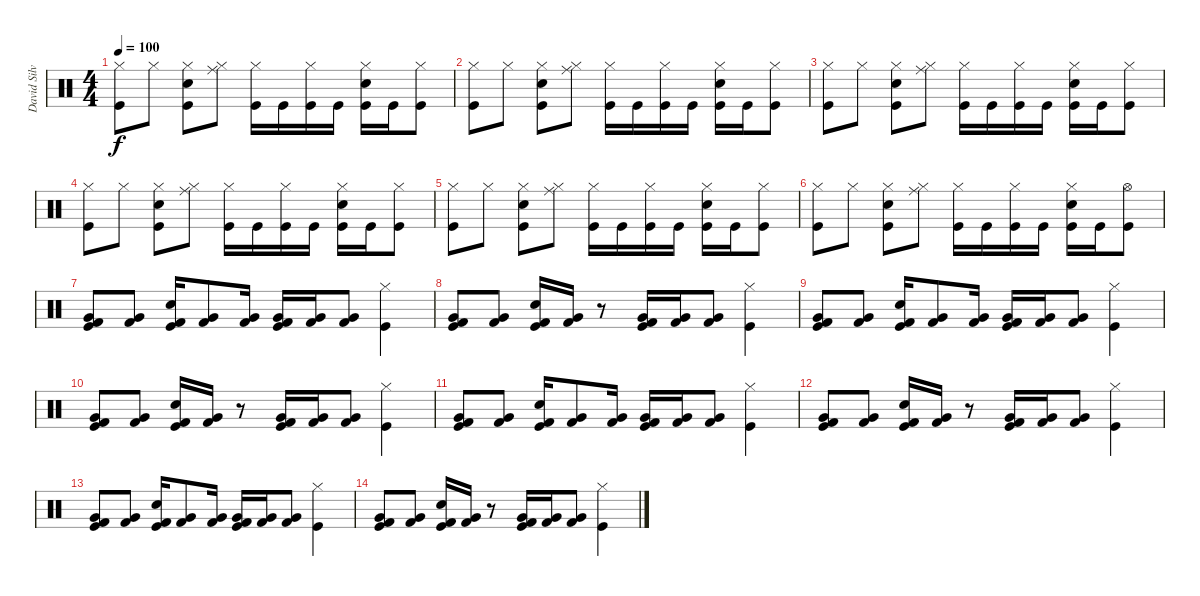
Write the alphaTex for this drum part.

\track ("David Silviera" "David Silv") {instrument percussion}
\staff {score}
\articulation defaults
\ts (4 4)
\tempo 100
\clef neutral
\ks c
("Hi-Hat (closed)" "Kick (hit)").8{dy f} "Hi-Hat (closed)".8 ("Electric Snare (hit)" "Hi-Hat (closed)" "Kick (hit)").8 ("Ride (middle)" "Hi-Hat (closed)").8 ("Hi-Hat (closed)" "Kick (hit)").16 "Kick (hit)".16 ("Hi-Hat (closed)" "Kick (hit)").16 "Kick (hit)".16 ("Electric Snare (hit)" "Hi-Hat (closed)" "Kick (hit)").16 "Kick (hit)".16 ("Hi-Hat (closed)" "Kick (hit)").8 |
("Hi-Hat (closed)" "Kick (hit)").8 "Hi-Hat (closed)".8 ("Electric Snare (hit)" "Hi-Hat (closed)" "Kick (hit)").8 ("Ride (middle)" "Hi-Hat (closed)").8 ("Hi-Hat (closed)" "Kick (hit)").16 "Kick (hit)".16 ("Hi-Hat (closed)" "Kick (hit)").16 "Kick (hit)".16 ("Electric Snare (hit)" "Hi-Hat (closed)" "Kick (hit)").16 "Kick (hit)".16 ("Hi-Hat (closed)" "Kick (hit)").8 |
("Hi-Hat (closed)" "Kick (hit)").8 "Hi-Hat (closed)".8 ("Electric Snare (hit)" "Hi-Hat (closed)" "Kick (hit)").8 ("Ride (middle)" "Hi-Hat (closed)").8 ("Hi-Hat (closed)" "Kick (hit)").16 "Kick (hit)".16 ("Hi-Hat (closed)" "Kick (hit)").16 "Kick (hit)".16 ("Electric Snare (hit)" "Hi-Hat (closed)" "Kick (hit)").16 "Kick (hit)".16 ("Hi-Hat (closed)" "Kick (hit)").8 |
("Hi-Hat (closed)" "Kick (hit)").8 "Hi-Hat (closed)".8 ("Electric Snare (hit)" "Hi-Hat (closed)" "Kick (hit)").8 ("Ride (middle)" "Hi-Hat (closed)").8 ("Hi-Hat (closed)" "Kick (hit)").16 "Kick (hit)".16 ("Hi-Hat (closed)" "Kick (hit)").16 "Kick (hit)".16 ("Electric Snare (hit)" "Hi-Hat (closed)" "Kick (hit)").16 "Kick (hit)".16 ("Hi-Hat (closed)" "Kick (hit)").8 |
("Hi-Hat (closed)" "Kick (hit)").8 "Hi-Hat (closed)".8 ("Electric Snare (hit)" "Hi-Hat (closed)" "Kick (hit)").8 ("Ride (middle)" "Hi-Hat (closed)").8 ("Hi-Hat (closed)" "Kick (hit)").16 "Kick (hit)".16 ("Hi-Hat (closed)" "Kick (hit)").16 "Kick (hit)".16 ("Electric Snare (hit)" "Hi-Hat (closed)" "Kick (hit)").16 "Kick (hit)".16 ("Hi-Hat (closed)" "Kick (hit)").8 |
("Hi-Hat (closed)" "Kick (hit)").8 "Hi-Hat (closed)".8 ("Electric Snare (hit)" "Hi-Hat (closed)" "Kick (hit)").8 ("Ride (middle)" "Hi-Hat (closed)").8 ("Hi-Hat (closed)" "Kick (hit)").16 "Kick (hit)".16 ("Hi-Hat (closed)" "Kick (hit)").16 "Kick (hit)".16 ("Electric Snare (hit)" "Hi-Hat (closed)" "Kick (hit)").16 "Kick (hit)".16 ("Hi-Hat (open)" "Kick (hit)").8 |
("Kick (hit) 2" "Very Low Tom (hit)" "Kick (hit)").8 ("Kick (hit) 2" "Very Low Tom (hit)").8 ("Kick (hit) 2" "Electric Snare (hit)" "Kick (hit)").16 ("Kick (hit) 2" "Very Low Tom (hit)").8 ("Kick (hit) 2" "Very Low Tom (hit)").16 ("Kick (hit) 2" "Very Low Tom (hit)" "Kick (hit)").16 ("Kick (hit) 2" "Very Low Tom (hit)").16 ("Kick (hit) 2" "Very Low Tom (hit)").8 ("Hi-Hat (closed)" "Kick (hit)").4 |
("Kick (hit) 2" "Very Low Tom (hit)" "Kick (hit)").8 ("Kick (hit) 2" "Very Low Tom (hit)").8 ("Kick (hit) 2" "Electric Snare (hit)" "Kick (hit)").16 ("Kick (hit) 2" "Very Low Tom (hit)").16 r.8 ("Kick (hit) 2" "Very Low Tom (hit)" "Kick (hit)").16 ("Kick (hit) 2" "Very Low Tom (hit)").16 ("Kick (hit) 2" "Very Low Tom (hit)").8 ("Hi-Hat (closed)" "Kick (hit)").4 |
("Kick (hit) 2" "Very Low Tom (hit)" "Kick (hit)").8 ("Kick (hit) 2" "Very Low Tom (hit)").8 ("Kick (hit) 2" "Electric Snare (hit)" "Kick (hit)").16 ("Kick (hit) 2" "Very Low Tom (hit)").8 ("Kick (hit) 2" "Very Low Tom (hit)").16 ("Kick (hit) 2" "Very Low Tom (hit)" "Kick (hit)").16 ("Kick (hit) 2" "Very Low Tom (hit)").16 ("Kick (hit) 2" "Very Low Tom (hit)").8 ("Hi-Hat (closed)" "Kick (hit)").4 |
("Kick (hit) 2" "Very Low Tom (hit)" "Kick (hit)").8 ("Kick (hit) 2" "Very Low Tom (hit)").8 ("Kick (hit) 2" "Electric Snare (hit)" "Kick (hit)").16 ("Kick (hit) 2" "Very Low Tom (hit)").16 r.8 ("Kick (hit) 2" "Very Low Tom (hit)" "Kick (hit)").16 ("Kick (hit) 2" "Very Low Tom (hit)").16 ("Kick (hit) 2" "Very Low Tom (hit)").8 ("Hi-Hat (closed)" "Kick (hit)").4 |
("Kick (hit) 2" "Very Low Tom (hit)" "Kick (hit)").8 ("Kick (hit) 2" "Very Low Tom (hit)").8 ("Kick (hit) 2" "Electric Snare (hit)" "Kick (hit)").16 ("Kick (hit) 2" "Very Low Tom (hit)").8 ("Kick (hit) 2" "Very Low Tom (hit)").16 ("Kick (hit) 2" "Very Low Tom (hit)" "Kick (hit)").16 ("Kick (hit) 2" "Very Low Tom (hit)").16 ("Kick (hit) 2" "Very Low Tom (hit)").8 ("Hi-Hat (closed)" "Kick (hit)").4 |
("Kick (hit) 2" "Very Low Tom (hit)" "Kick (hit)").8 ("Kick (hit) 2" "Very Low Tom (hit)").8 ("Kick (hit) 2" "Electric Snare (hit)" "Kick (hit)").16 ("Kick (hit) 2" "Very Low Tom (hit)").16 r.8 ("Kick (hit) 2" "Very Low Tom (hit)" "Kick (hit)").16 ("Kick (hit) 2" "Very Low Tom (hit)").16 ("Kick (hit) 2" "Very Low Tom (hit)").8 ("Hi-Hat (closed)" "Kick (hit)").4 |
("Kick (hit) 2" "Very Low Tom (hit)" "Kick (hit)").8 ("Kick (hit) 2" "Very Low Tom (hit)").8 ("Kick (hit) 2" "Electric Snare (hit)" "Kick (hit)").16 ("Kick (hit) 2" "Very Low Tom (hit)").8 ("Kick (hit) 2" "Very Low Tom (hit)").16 ("Kick (hit) 2" "Very Low Tom (hit)" "Kick (hit)").16 ("Kick (hit) 2" "Very Low Tom (hit)").16 ("Kick (hit) 2" "Very Low Tom (hit)").8 ("Hi-Hat (closed)" "Kick (hit)").4 |
("Kick (hit) 2" "Very Low Tom (hit)" "Kick (hit)").8 ("Kick (hit) 2" "Very Low Tom (hit)").8 ("Kick (hit) 2" "Electric Snare (hit)" "Kick (hit)").16 ("Kick (hit) 2" "Very Low Tom (hit)").16 r.8 ("Kick (hit) 2" "Very Low Tom (hit)" "Kick (hit)").16 ("Kick (hit) 2" "Very Low Tom (hit)").16 ("Kick (hit) 2" "Very Low Tom (hit)").8 ("Hi-Hat (closed)" "Kick (hit)").4
